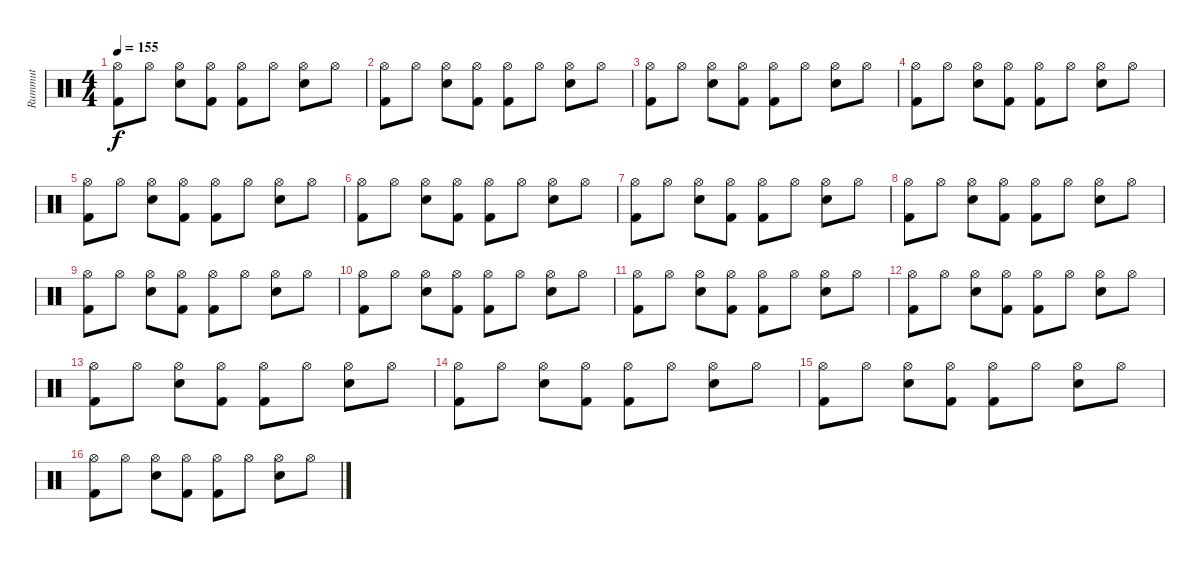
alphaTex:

\track ("Rummut" "Rummut") {instrument percussion}
\staff {score}
\articulation defaults
\ts (4 4)
\tempo 155
\clef neutral
\ks c
("Kick (hit) 2" "Hi-Hat (open)").8{dy f} "Hi-Hat (open)".8 ("Electric Snare (hit)" "Hi-Hat (open)").8 ("Kick (hit) 2" "Hi-Hat (open)").8 ("Kick (hit) 2" "Hi-Hat (open)").8 "Hi-Hat (open)".8 ("Electric Snare (hit)" "Hi-Hat (open)").8 "Hi-Hat (open)".8 |
("Kick (hit) 2" "Hi-Hat (open)").8 "Hi-Hat (open)".8 ("Electric Snare (hit)" "Hi-Hat (open)").8 ("Kick (hit) 2" "Hi-Hat (open)").8 ("Kick (hit) 2" "Hi-Hat (open)").8 "Hi-Hat (open)".8 ("Electric Snare (hit)" "Hi-Hat (open)").8 "Hi-Hat (open)".8 |
("Kick (hit) 2" "Hi-Hat (open)").8 "Hi-Hat (open)".8 ("Electric Snare (hit)" "Hi-Hat (open)").8 ("Kick (hit) 2" "Hi-Hat (open)").8 ("Kick (hit) 2" "Hi-Hat (open)").8 "Hi-Hat (open)".8 ("Electric Snare (hit)" "Hi-Hat (open)").8 "Hi-Hat (open)".8 |
("Kick (hit) 2" "Hi-Hat (open)").8 "Hi-Hat (open)".8 ("Electric Snare (hit)" "Hi-Hat (open)").8 ("Kick (hit) 2" "Hi-Hat (open)").8 ("Kick (hit) 2" "Hi-Hat (open)").8 "Hi-Hat (open)".8 ("Electric Snare (hit)" "Hi-Hat (open)").8 "Hi-Hat (open)".8 |
("Kick (hit) 2" "Hi-Hat (open)").8 "Hi-Hat (open)".8 ("Electric Snare (hit)" "Hi-Hat (open)").8 ("Kick (hit) 2" "Hi-Hat (open)").8 ("Kick (hit) 2" "Hi-Hat (open)").8 "Hi-Hat (open)".8 ("Electric Snare (hit)" "Hi-Hat (open)").8 "Hi-Hat (open)".8 |
("Kick (hit) 2" "Hi-Hat (open)").8 "Hi-Hat (open)".8 ("Electric Snare (hit)" "Hi-Hat (open)").8 ("Kick (hit) 2" "Hi-Hat (open)").8 ("Kick (hit) 2" "Hi-Hat (open)").8 "Hi-Hat (open)".8 ("Electric Snare (hit)" "Hi-Hat (open)").8 "Hi-Hat (open)".8 |
("Kick (hit) 2" "Hi-Hat (open)").8 "Hi-Hat (open)".8 ("Electric Snare (hit)" "Hi-Hat (open)").8 ("Kick (hit) 2" "Hi-Hat (open)").8 ("Kick (hit) 2" "Hi-Hat (open)").8 "Hi-Hat (open)".8 ("Electric Snare (hit)" "Hi-Hat (open)").8 "Hi-Hat (open)".8 |
("Kick (hit) 2" "Hi-Hat (open)").8 "Hi-Hat (open)".8 ("Electric Snare (hit)" "Hi-Hat (open)").8 ("Kick (hit) 2" "Hi-Hat (open)").8 ("Kick (hit) 2" "Hi-Hat (open)").8 "Hi-Hat (open)".8 ("Electric Snare (hit)" "Hi-Hat (open)").8 "Hi-Hat (open)".8 |
("Kick (hit) 2" "Hi-Hat (open)").8 "Hi-Hat (open)".8 ("Electric Snare (hit)" "Hi-Hat (open)").8 ("Kick (hit) 2" "Hi-Hat (open)").8 ("Kick (hit) 2" "Hi-Hat (open)").8 "Hi-Hat (open)".8 ("Electric Snare (hit)" "Hi-Hat (open)").8 "Hi-Hat (open)".8 |
("Kick (hit) 2" "Hi-Hat (open)").8 "Hi-Hat (open)".8 ("Electric Snare (hit)" "Hi-Hat (open)").8 ("Kick (hit) 2" "Hi-Hat (open)").8 ("Kick (hit) 2" "Hi-Hat (open)").8 "Hi-Hat (open)".8 ("Electric Snare (hit)" "Hi-Hat (open)").8 "Hi-Hat (open)".8 |
("Kick (hit) 2" "Hi-Hat (open)").8 "Hi-Hat (open)".8 ("Electric Snare (hit)" "Hi-Hat (open)").8 ("Kick (hit) 2" "Hi-Hat (open)").8 ("Kick (hit) 2" "Hi-Hat (open)").8 "Hi-Hat (open)".8 ("Electric Snare (hit)" "Hi-Hat (open)").8 "Hi-Hat (open)".8 |
("Kick (hit) 2" "Hi-Hat (open)").8 "Hi-Hat (open)".8 ("Electric Snare (hit)" "Hi-Hat (open)").8 ("Kick (hit) 2" "Hi-Hat (open)").8 ("Kick (hit) 2" "Hi-Hat (open)").8 "Hi-Hat (open)".8 ("Electric Snare (hit)" "Hi-Hat (open)").8 "Hi-Hat (open)".8 |
("Kick (hit) 2" "Hi-Hat (open)").8 "Hi-Hat (open)".8 ("Electric Snare (hit)" "Hi-Hat (open)").8 ("Kick (hit) 2" "Hi-Hat (open)").8 ("Kick (hit) 2" "Hi-Hat (open)").8 "Hi-Hat (open)".8 ("Electric Snare (hit)" "Hi-Hat (open)").8 "Hi-Hat (open)".8 |
("Kick (hit) 2" "Hi-Hat (open)").8 "Hi-Hat (open)".8 ("Electric Snare (hit)" "Hi-Hat (open)").8 ("Kick (hit) 2" "Hi-Hat (open)").8 ("Kick (hit) 2" "Hi-Hat (open)").8 "Hi-Hat (open)".8 ("Electric Snare (hit)" "Hi-Hat (open)").8 "Hi-Hat (open)".8 |
("Kick (hit) 2" "Hi-Hat (open)").8 "Hi-Hat (open)".8 ("Electric Snare (hit)" "Hi-Hat (open)").8 ("Kick (hit) 2" "Hi-Hat (open)").8 ("Kick (hit) 2" "Hi-Hat (open)").8 "Hi-Hat (open)".8 ("Electric Snare (hit)" "Hi-Hat (open)").8 "Hi-Hat (open)".8 |
("Kick (hit) 2" "Hi-Hat (open)").8 "Hi-Hat (open)".8 ("Electric Snare (hit)" "Hi-Hat (open)").8 ("Kick (hit) 2" "Hi-Hat (open)").8 ("Kick (hit) 2" "Hi-Hat (open)").8 "Hi-Hat (open)".8 ("Electric Snare (hit)" "Hi-Hat (open)").8 "Hi-Hat (open)".8
